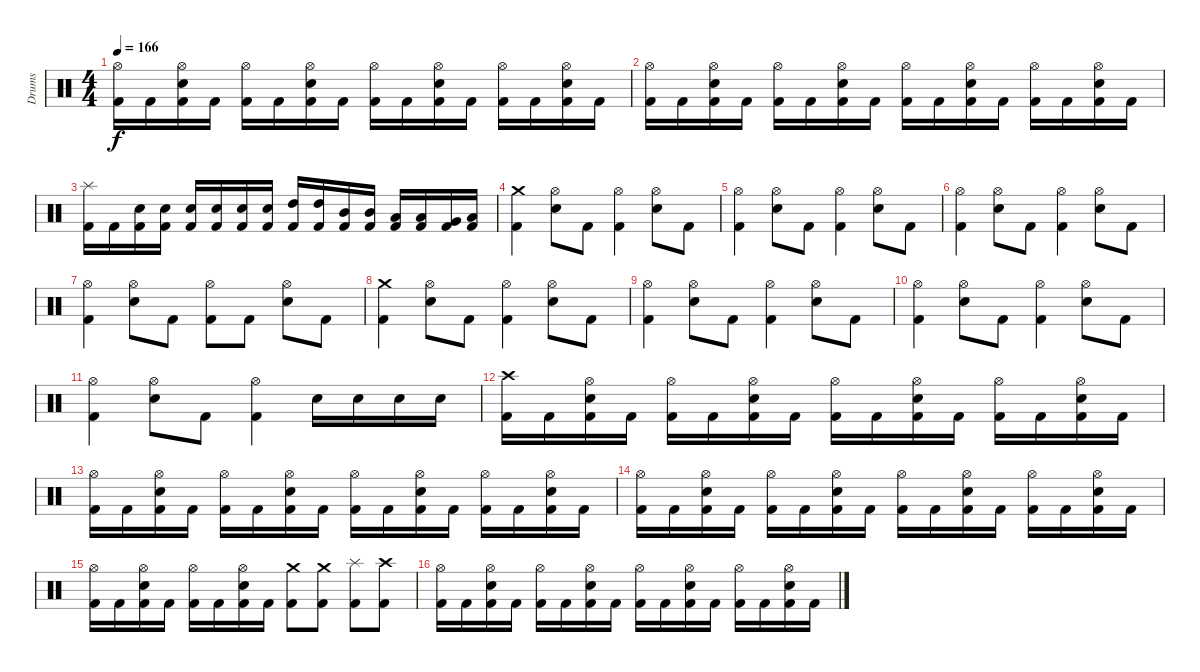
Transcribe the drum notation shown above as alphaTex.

\track ("Drums" "Drums") {instrument percussion}
\staff {score}
\articulation defaults
\ts (4 4)
\tempo 166
\clef neutral
\ks c
("Kick (hit) 2" "Hi-Hat (open)").16{dy f} "Kick (hit) 2".16 ("Kick (hit) 2" "Electric Snare (hit)" "Hi-Hat (open)").16 "Kick (hit) 2".16 ("Kick (hit) 2" "Hi-Hat (open)").16 "Kick (hit) 2".16 ("Kick (hit) 2" "Electric Snare (hit)" "Hi-Hat (open)").16 "Kick (hit) 2".16 ("Kick (hit) 2" "Hi-Hat (open)").16 "Kick (hit) 2".16 ("Kick (hit) 2" "Electric Snare (hit)" "Hi-Hat (open)").16 "Kick (hit) 2".16 ("Kick (hit) 2" "Hi-Hat (open)").16 "Kick (hit) 2".16 ("Kick (hit) 2" "Electric Snare (hit)" "Hi-Hat (open)").16 "Kick (hit) 2".16 |
("Kick (hit) 2" "Hi-Hat (open)").16 "Kick (hit) 2".16 ("Kick (hit) 2" "Electric Snare (hit)" "Hi-Hat (open)").16 "Kick (hit) 2".16 ("Kick (hit) 2" "Hi-Hat (open)").16 "Kick (hit) 2".16 ("Kick (hit) 2" "Electric Snare (hit)" "Hi-Hat (open)").16 "Kick (hit) 2".16 ("Kick (hit) 2" "Hi-Hat (open)").16 "Kick (hit) 2".16 ("Kick (hit) 2" "Electric Snare (hit)" "Hi-Hat (open)").16 "Kick (hit) 2".16 ("Kick (hit) 2" "Hi-Hat (open)").16 "Kick (hit) 2".16 ("Kick (hit) 2" "Electric Snare (hit)" "Hi-Hat (open)").16 "Kick (hit) 2".16 |
("Kick (hit) 2" "Splash (hit)").16 "Kick (hit) 2".16 ("Kick (hit) 2" "Electric Snare (hit)").16 ("Kick (hit) 2" "Electric Snare (hit)").16 ("Kick (hit) 2" "Electric Snare (hit)").16 ("Kick (hit) 2" "Electric Snare (hit)").16 ("Kick (hit) 2" "Electric Snare (hit)").16 ("Kick (hit) 2" "Electric Snare (hit)").16 ("Kick (hit) 2" "High Tom (hit)").16 ("Kick (hit) 2" "High Tom (hit)").16 ("Kick (hit) 2" "Mid Tom (hit)").16 ("Kick (hit) 2" "Mid Tom (hit)").16 ("Kick (hit) 2" "Low Tom (hit)").16 ("Kick (hit) 2" "Low Tom (hit)").16 ("Kick (hit) 2" "Very Low Tom (hit)").16 ("Kick (hit) 2" "Low Floor Tom (hit)").16 |
\section ("" "")
("Kick (hit) 2" "Crash medium (hit)").4 ("Electric Snare (hit)" "Hi-Hat (open)").8 "Kick (hit) 2".8 ("Kick (hit) 2" "Hi-Hat (open)").4 ("Electric Snare (hit)" "Hi-Hat (open)").8 "Kick (hit) 2".8 |
("Kick (hit) 2" "Hi-Hat (open)").4 ("Electric Snare (hit)" "Hi-Hat (open)").8 "Kick (hit) 2".8 ("Kick (hit) 2" "Hi-Hat (open)").4 ("Electric Snare (hit)" "Hi-Hat (open)").8 "Kick (hit) 2".8 |
("Kick (hit) 2" "Hi-Hat (open)").4 ("Electric Snare (hit)" "Hi-Hat (open)").8 "Kick (hit) 2".8 ("Kick (hit) 2" "Hi-Hat (open)").4 ("Electric Snare (hit)" "Hi-Hat (open)").8 "Kick (hit) 2".8 |
("Kick (hit) 2" "Hi-Hat (open)").4 ("Electric Snare (hit)" "Hi-Hat (open)").8 "Kick (hit) 2".8 ("Kick (hit) 2" "Hi-Hat (open)").8 "Kick (hit) 2".8 ("Electric Snare (hit)" "Hi-Hat (open)").8 "Kick (hit) 2".8 |
("Kick (hit) 2" "Crash medium (hit)").4 ("Electric Snare (hit)" "Hi-Hat (open)").8 "Kick (hit) 2".8 ("Kick (hit) 2" "Hi-Hat (open)").4 ("Electric Snare (hit)" "Hi-Hat (open)").8 "Kick (hit) 2".8 |
("Kick (hit) 2" "Hi-Hat (open)").4 ("Electric Snare (hit)" "Hi-Hat (open)").8 "Kick (hit) 2".8 ("Kick (hit) 2" "Hi-Hat (open)").4 ("Electric Snare (hit)" "Hi-Hat (open)").8 "Kick (hit) 2".8 |
("Kick (hit) 2" "Hi-Hat (open)").4 ("Electric Snare (hit)" "Hi-Hat (open)").8 "Kick (hit) 2".8 ("Kick (hit) 2" "Hi-Hat (open)").4 ("Electric Snare (hit)" "Hi-Hat (open)").8 "Kick (hit) 2".8 |
("Kick (hit) 2" "Hi-Hat (open)").4 ("Electric Snare (hit)" "Hi-Hat (open)").8 "Kick (hit) 2".8 ("Kick (hit) 2" "Hi-Hat (open)").4 "Electric Snare (hit)".16 "Electric Snare (hit)".16 "Electric Snare (hit)".16 "Electric Snare (hit)".16 |
\section ("" "")
("Kick (hit) 2" "Crash high (hit)").16 "Kick (hit) 2".16 ("Kick (hit) 2" "Electric Snare (hit)" "Hi-Hat (open)").16 "Kick (hit) 2".16 ("Kick (hit) 2" "Hi-Hat (open)").16 "Kick (hit) 2".16 ("Kick (hit) 2" "Electric Snare (hit)" "Hi-Hat (open)").16 "Kick (hit) 2".16 ("Kick (hit) 2" "Hi-Hat (open)").16 "Kick (hit) 2".16 ("Kick (hit) 2" "Electric Snare (hit)" "Hi-Hat (open)").16 "Kick (hit) 2".16 ("Kick (hit) 2" "Hi-Hat (open)").16 "Kick (hit) 2".16 ("Kick (hit) 2" "Electric Snare (hit)" "Hi-Hat (open)").16 "Kick (hit) 2".16 |
("Kick (hit) 2" "Hi-Hat (open)").16 "Kick (hit) 2".16 ("Kick (hit) 2" "Electric Snare (hit)" "Hi-Hat (open)").16 "Kick (hit) 2".16 ("Kick (hit) 2" "Hi-Hat (open)").16 "Kick (hit) 2".16 ("Kick (hit) 2" "Electric Snare (hit)" "Hi-Hat (open)").16 "Kick (hit) 2".16 ("Kick (hit) 2" "Hi-Hat (open)").16 "Kick (hit) 2".16 ("Kick (hit) 2" "Electric Snare (hit)" "Hi-Hat (open)").16 "Kick (hit) 2".16 ("Kick (hit) 2" "Hi-Hat (open)").16 "Kick (hit) 2".16 ("Kick (hit) 2" "Electric Snare (hit)" "Hi-Hat (open)").16 "Kick (hit) 2".16 |
("Kick (hit) 2" "Hi-Hat (open)").16 "Kick (hit) 2".16 ("Kick (hit) 2" "Electric Snare (hit)" "Hi-Hat (open)").16 "Kick (hit) 2".16 ("Kick (hit) 2" "Hi-Hat (open)").16 "Kick (hit) 2".16 ("Kick (hit) 2" "Electric Snare (hit)" "Hi-Hat (open)").16 "Kick (hit) 2".16 ("Kick (hit) 2" "Hi-Hat (open)").16 "Kick (hit) 2".16 ("Kick (hit) 2" "Electric Snare (hit)" "Hi-Hat (open)").16 "Kick (hit) 2".16 ("Kick (hit) 2" "Hi-Hat (open)").16 "Kick (hit) 2".16 ("Kick (hit) 2" "Electric Snare (hit)" "Hi-Hat (open)").16 "Kick (hit) 2".16 |
("Kick (hit) 2" "Hi-Hat (open)").16 "Kick (hit) 2".16 ("Kick (hit) 2" "Electric Snare (hit)" "Hi-Hat (open)").16 "Kick (hit) 2".16 ("Kick (hit) 2" "Hi-Hat (open)").16 "Kick (hit) 2".16 ("Kick (hit) 2" "Electric Snare (hit)" "Hi-Hat (open)").16 "Kick (hit) 2".16 ("Kick (hit) 2" "Crash medium (hit)").8 ("Kick (hit) 2" "Crash medium (hit)").8 ("Kick (hit) 2" "Splash (hit)").8 ("Kick (hit) 2" "Crash high (hit)").8 |
("Kick (hit) 2" "Hi-Hat (open)").16 "Kick (hit) 2".16 ("Kick (hit) 2" "Electric Snare (hit)" "Hi-Hat (open)").16 "Kick (hit) 2".16 ("Kick (hit) 2" "Hi-Hat (open)").16 "Kick (hit) 2".16 ("Kick (hit) 2" "Electric Snare (hit)" "Hi-Hat (open)").16 "Kick (hit) 2".16 ("Kick (hit) 2" "Hi-Hat (open)").16 "Kick (hit) 2".16 ("Kick (hit) 2" "Electric Snare (hit)" "Hi-Hat (open)").16 "Kick (hit) 2".16 ("Kick (hit) 2" "Hi-Hat (open)").16 "Kick (hit) 2".16 ("Kick (hit) 2" "Electric Snare (hit)" "Hi-Hat (open)").16 "Kick (hit) 2".16
